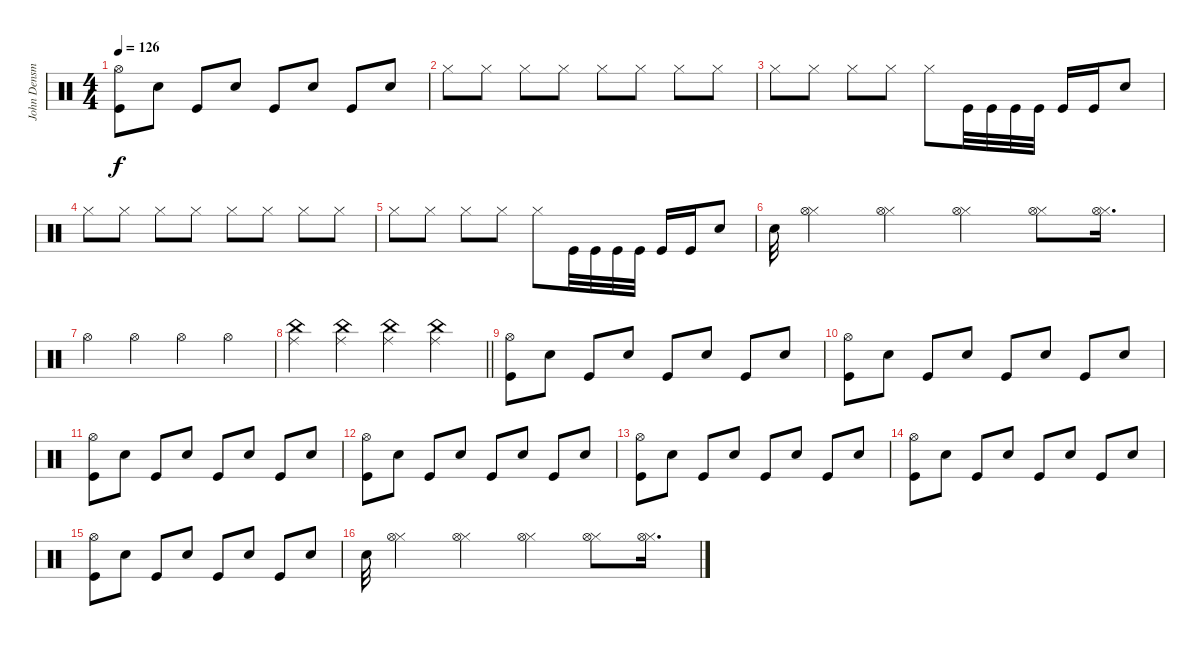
\track ("John Densmore" "John Densm") {instrument percussion}
\staff {score}
\articulation defaults
\ts (4 4)
\tempo 126
\clef neutral
\ks c
("Kick (hit)" "Hi-Hat (open)").8{dy f} "Snare (hit) 2".8 "Kick (hit)".8 "Snare (hit) 2".8 "Kick (hit)".8 "Snare (hit) 2".8 "Kick (hit)".8 "Snare (hit) 2".8 |
"Hi-Hat (closed)".8 "Hi-Hat (closed)".8 "Hi-Hat (closed)".8 "Hi-Hat (closed)".8 "Hi-Hat (closed)".8 "Hi-Hat (closed)".8 "Hi-Hat (closed)".8 "Hi-Hat (closed)".8 |
"Hi-Hat (closed)".8 "Hi-Hat (closed)".8 "Hi-Hat (closed)".8 "Hi-Hat (closed)".8 "Hi-Hat (closed)".8 "Kick (hit)".32 "Kick (hit)".32 "Kick (hit)".32 "Kick (hit)".32 "Kick (hit)".16 "Kick (hit)".16 "Snare (hit) 2".8 |
"Hi-Hat (closed)".8 "Hi-Hat (closed)".8 "Hi-Hat (closed)".8 "Hi-Hat (closed)".8 "Hi-Hat (closed)".8 "Hi-Hat (closed)".8 "Hi-Hat (closed)".8 "Hi-Hat (closed)".8 |
"Hi-Hat (closed)".8 "Hi-Hat (closed)".8 "Hi-Hat (closed)".8 "Hi-Hat (closed)".8 "Hi-Hat (closed)".8 "Kick (hit)".32 "Kick (hit)".32 "Kick (hit)".32 "Kick (hit)".32 "Kick (hit)".16 "Kick (hit)".16 "Snare (hit) 2".8 |
"Electric Snare (hit)".32 ("Hi-Hat (closed)" "Hi-Hat (open)").4 ("Hi-Hat (closed)" "Hi-Hat (open)").4 ("Hi-Hat (closed)" "Hi-Hat (open)").4 ("Hi-Hat (closed)" "Hi-Hat (open)").8 ("Hi-Hat (closed)" "Hi-Hat (open)").16{d} |
"Hi-Hat (open)".4 "Hi-Hat (open)".4 "Hi-Hat (open)".4 "Hi-Hat (open)".4 |
\barLineRight lightlight
("China (hit)" "Ride (middle)").4 ("China (hit)" "Ride (middle)").4 ("China (hit)" "Ride (middle)").4 ("China (hit)" "Ride (middle)").4 |
("Kick (hit)" "Hi-Hat (open)").8 "Snare (hit) 2".8 "Kick (hit)".8 "Snare (hit) 2".8 "Kick (hit)".8 "Snare (hit) 2".8 "Kick (hit)".8 "Snare (hit) 2".8 |
("Kick (hit)" "Hi-Hat (open)").8 "Snare (hit) 2".8 "Kick (hit)".8 "Snare (hit) 2".8 "Kick (hit)".8 "Snare (hit) 2".8 "Kick (hit)".8 "Snare (hit) 2".8 |
("Kick (hit)" "Hi-Hat (open)").8 "Snare (hit) 2".8 "Kick (hit)".8 "Snare (hit) 2".8 "Kick (hit)".8 "Snare (hit) 2".8 "Kick (hit)".8 "Snare (hit) 2".8 |
("Kick (hit)" "Hi-Hat (open)").8 "Snare (hit) 2".8 "Kick (hit)".8 "Snare (hit) 2".8 "Kick (hit)".8 "Snare (hit) 2".8 "Kick (hit)".8 "Snare (hit) 2".8 |
("Kick (hit)" "Hi-Hat (open)").8 "Snare (hit) 2".8 "Kick (hit)".8 "Snare (hit) 2".8 "Kick (hit)".8 "Snare (hit) 2".8 "Kick (hit)".8 "Snare (hit) 2".8 |
("Kick (hit)" "Hi-Hat (open)").8 "Snare (hit) 2".8 "Kick (hit)".8 "Snare (hit) 2".8 "Kick (hit)".8 "Snare (hit) 2".8 "Kick (hit)".8 "Snare (hit) 2".8 |
("Kick (hit)" "Hi-Hat (open)").8 "Snare (hit) 2".8 "Kick (hit)".8 "Snare (hit) 2".8 "Kick (hit)".8 "Snare (hit) 2".8 "Kick (hit)".8 "Snare (hit) 2".8 |
"Electric Snare (hit)".32 ("Hi-Hat (closed)" "Hi-Hat (open)").4 ("Hi-Hat (closed)" "Hi-Hat (open)").4 ("Hi-Hat (closed)" "Hi-Hat (open)").4 ("Hi-Hat (closed)" "Hi-Hat (open)").8 ("Hi-Hat (closed)" "Hi-Hat (open)").16{d}
